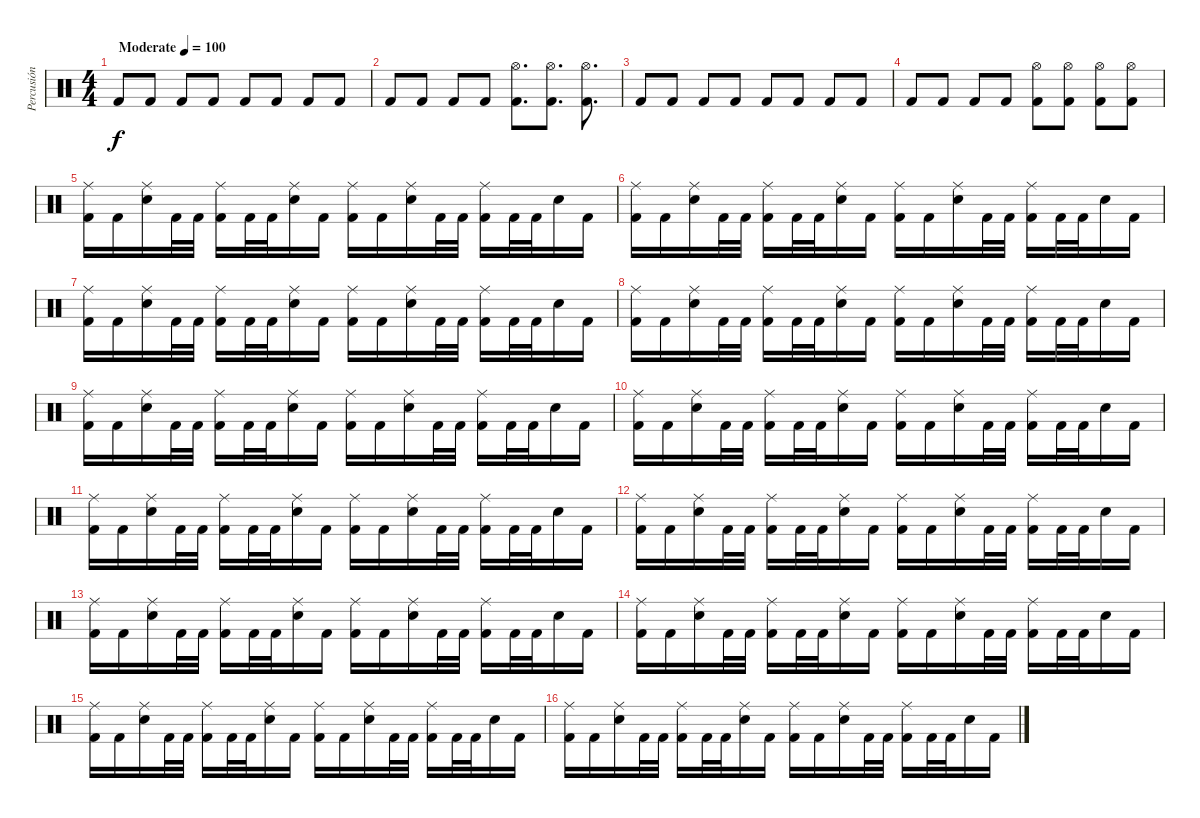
\track ("Percusión" "Percusión") {instrument percussion}
\staff {score}
\articulation defaults
\ts (4 4)
\tempo (100 "Moderate")
\clef neutral
\ks c "Kick (hit) 2".8{dy f} "Kick (hit) 2".8 "Kick (hit) 2".8 "Kick (hit) 2".8 "Kick (hit) 2".8 "Kick (hit) 2".8 "Kick (hit) 2".8 "Kick (hit) 2".8
|
"Kick (hit) 2".8 "Kick (hit) 2".8 "Kick (hit) 2".8 "Kick (hit) 2".8 ("Hi-Hat (open)" "Kick (hit) 2").8{d} ("Hi-Hat (open)" "Kick (hit) 2").8{d} ("Hi-Hat (open)" "Kick (hit) 2").8{d} |
"Kick (hit) 2".8 "Kick (hit) 2".8 "Kick (hit) 2".8 "Kick (hit) 2".8 "Kick (hit) 2".8 "Kick (hit) 2".8 "Kick (hit) 2".8 "Kick (hit) 2".8 |
"Kick (hit) 2".8 "Kick (hit) 2".8 "Kick (hit) 2".8 "Kick (hit) 2".8 ("Hi-Hat (open)" "Kick (hit) 2").8 ("Hi-Hat (open)" "Kick (hit) 2").8 ("Hi-Hat (open)" "Kick (hit) 2").8 ("Hi-Hat (open)" "Kick (hit) 2").8 |
("Ride (middle)" "Kick (hit) 2").16 "Kick (hit) 2".16 ("Ride (middle)" "Snare (hit) 2").16 "Kick (hit) 2".32 "Kick (hit) 2".32 ("Ride (middle)" "Kick (hit) 2").16 "Kick (hit) 2".32 "Kick (hit) 2".32 ("Ride (middle)" "Snare (hit) 2").16 "Kick (hit) 2".16 ("Ride (middle)" "Kick (hit) 2").16 "Kick (hit) 2".16 ("Ride (middle)" "Snare (hit) 2").16 "Kick (hit) 2".32 "Kick (hit) 2".32 ("Ride (middle)" "Kick (hit) 2").16 "Kick (hit) 2".32 "Kick (hit) 2".32 "Snare (hit) 2".16 "Kick (hit) 2".16 |
("Ride (middle)" "Kick (hit) 2").16 "Kick (hit) 2".16 ("Ride (middle)" "Snare (hit) 2").16 "Kick (hit) 2".32 "Kick (hit) 2".32 ("Ride (middle)" "Kick (hit) 2").16 "Kick (hit) 2".32 "Kick (hit) 2".32 ("Ride (middle)" "Snare (hit) 2").16 "Kick (hit) 2".16 ("Ride (middle)" "Kick (hit) 2").16 "Kick (hit) 2".16 ("Ride (middle)" "Snare (hit) 2").16 "Kick (hit) 2".32 "Kick (hit) 2".32 ("Ride (middle)" "Kick (hit) 2").16 "Kick (hit) 2".32 "Kick (hit) 2".32 "Snare (hit) 2".16 "Kick (hit) 2".16 |
("Ride (middle)" "Kick (hit) 2").16 "Kick (hit) 2".16 ("Ride (middle)" "Snare (hit) 2").16 "Kick (hit) 2".32 "Kick (hit) 2".32 ("Ride (middle)" "Kick (hit) 2").16 "Kick (hit) 2".32 "Kick (hit) 2".32 ("Ride (middle)" "Snare (hit) 2").16 "Kick (hit) 2".16 ("Ride (middle)" "Kick (hit) 2").16 "Kick (hit) 2".16 ("Ride (middle)" "Snare (hit) 2").16 "Kick (hit) 2".32 "Kick (hit) 2".32 ("Ride (middle)" "Kick (hit) 2").16 "Kick (hit) 2".32 "Kick (hit) 2".32 "Snare (hit) 2".16 "Kick (hit) 2".16 |
("Ride (middle)" "Kick (hit) 2").16 "Kick (hit) 2".16 ("Ride (middle)" "Snare (hit) 2").16 "Kick (hit) 2".32 "Kick (hit) 2".32 ("Ride (middle)" "Kick (hit) 2").16 "Kick (hit) 2".32 "Kick (hit) 2".32 ("Ride (middle)" "Snare (hit) 2").16 "Kick (hit) 2".16 ("Ride (middle)" "Kick (hit) 2").16 "Kick (hit) 2".16 ("Ride (middle)" "Snare (hit) 2").16 "Kick (hit) 2".32 "Kick (hit) 2".32 ("Ride (middle)" "Kick (hit) 2").16 "Kick (hit) 2".32 "Kick (hit) 2".32 "Snare (hit) 2".16 "Kick (hit) 2".16 |
("Ride (middle)" "Kick (hit) 2").16 "Kick (hit) 2".16 ("Ride (middle)" "Snare (hit) 2").16 "Kick (hit) 2".32 "Kick (hit) 2".32 ("Ride (middle)" "Kick (hit) 2").16 "Kick (hit) 2".32 "Kick (hit) 2".32 ("Ride (middle)" "Snare (hit) 2").16 "Kick (hit) 2".16 ("Ride (middle)" "Kick (hit) 2").16 "Kick (hit) 2".16 ("Ride (middle)" "Snare (hit) 2").16 "Kick (hit) 2".32 "Kick (hit) 2".32 ("Ride (middle)" "Kick (hit) 2").16 "Kick (hit) 2".32 "Kick (hit) 2".32 "Snare (hit) 2".16 "Kick (hit) 2".16 |
("Ride (middle)" "Kick (hit) 2").16 "Kick (hit) 2".16 ("Ride (middle)" "Snare (hit) 2").16 "Kick (hit) 2".32 "Kick (hit) 2".32 ("Ride (middle)" "Kick (hit) 2").16 "Kick (hit) 2".32 "Kick (hit) 2".32 ("Ride (middle)" "Snare (hit) 2").16 "Kick (hit) 2".16 ("Ride (middle)" "Kick (hit) 2").16 "Kick (hit) 2".16 ("Ride (middle)" "Snare (hit) 2").16 "Kick (hit) 2".32 "Kick (hit) 2".32 ("Ride (middle)" "Kick (hit) 2").16 "Kick (hit) 2".32 "Kick (hit) 2".32 "Snare (hit) 2".16 "Kick (hit) 2".16 |
("Ride (middle)" "Kick (hit) 2").16 "Kick (hit) 2".16 ("Ride (middle)" "Snare (hit) 2").16 "Kick (hit) 2".32 "Kick (hit) 2".32 ("Ride (middle)" "Kick (hit) 2").16 "Kick (hit) 2".32 "Kick (hit) 2".32 ("Ride (middle)" "Snare (hit) 2").16 "Kick (hit) 2".16 ("Ride (middle)" "Kick (hit) 2").16 "Kick (hit) 2".16 ("Ride (middle)" "Snare (hit) 2").16 "Kick (hit) 2".32 "Kick (hit) 2".32 ("Ride (middle)" "Kick (hit) 2").16 "Kick (hit) 2".32 "Kick (hit) 2".32 "Snare (hit) 2".16 "Kick (hit) 2".16 |
("Ride (middle)" "Kick (hit) 2").16 "Kick (hit) 2".16 ("Ride (middle)" "Snare (hit) 2").16 "Kick (hit) 2".32 "Kick (hit) 2".32 ("Ride (middle)" "Kick (hit) 2").16 "Kick (hit) 2".32 "Kick (hit) 2".32 ("Ride (middle)" "Snare (hit) 2").16 "Kick (hit) 2".16 ("Ride (middle)" "Kick (hit) 2").16 "Kick (hit) 2".16 ("Ride (middle)" "Snare (hit) 2").16 "Kick (hit) 2".32 "Kick (hit) 2".32 ("Ride (middle)" "Kick (hit) 2").16 "Kick (hit) 2".32 "Kick (hit) 2".32 "Snare (hit) 2".16 "Kick (hit) 2".16 |
("Ride (middle)" "Kick (hit) 2").16 "Kick (hit) 2".16 ("Ride (middle)" "Snare (hit) 2").16 "Kick (hit) 2".32 "Kick (hit) 2".32 ("Ride (middle)" "Kick (hit) 2").16 "Kick (hit) 2".32 "Kick (hit) 2".32 ("Ride (middle)" "Snare (hit) 2").16 "Kick (hit) 2".16 ("Ride (middle)" "Kick (hit) 2").16 "Kick (hit) 2".16 ("Ride (middle)" "Snare (hit) 2").16 "Kick (hit) 2".32 "Kick (hit) 2".32 ("Ride (middle)" "Kick (hit) 2").16 "Kick (hit) 2".32 "Kick (hit) 2".32 "Snare (hit) 2".16 "Kick (hit) 2".16 |
("Ride (middle)" "Kick (hit) 2").16 "Kick (hit) 2".16 ("Ride (middle)" "Snare (hit) 2").16 "Kick (hit) 2".32 "Kick (hit) 2".32 ("Ride (middle)" "Kick (hit) 2").16 "Kick (hit) 2".32 "Kick (hit) 2".32 ("Ride (middle)" "Snare (hit) 2").16 "Kick (hit) 2".16 ("Ride (middle)" "Kick (hit) 2").16 "Kick (hit) 2".16 ("Ride (middle)" "Snare (hit) 2").16 "Kick (hit) 2".32 "Kick (hit) 2".32 ("Ride (middle)" "Kick (hit) 2").16 "Kick (hit) 2".32 "Kick (hit) 2".32 "Snare (hit) 2".16 "Kick (hit) 2".16 |
("Ride (middle)" "Kick (hit) 2").16 "Kick (hit) 2".16 ("Ride (middle)" "Snare (hit) 2").16 "Kick (hit) 2".32 "Kick (hit) 2".32 ("Ride (middle)" "Kick (hit) 2").16 "Kick (hit) 2".32 "Kick (hit) 2".32 ("Ride (middle)" "Snare (hit) 2").16 "Kick (hit) 2".16 ("Ride (middle)" "Kick (hit) 2").16 "Kick (hit) 2".16 ("Ride (middle)" "Snare (hit) 2").16 "Kick (hit) 2".32 "Kick (hit) 2".32 ("Ride (middle)" "Kick (hit) 2").16 "Kick (hit) 2".32 "Kick (hit) 2".32 "Snare (hit) 2".16 "Kick (hit) 2".16 |
("Ride (middle)" "Kick (hit) 2").16 "Kick (hit) 2".16 ("Ride (middle)" "Snare (hit) 2").16 "Kick (hit) 2".32 "Kick (hit) 2".32 ("Ride (middle)" "Kick (hit) 2").16 "Kick (hit) 2".32 "Kick (hit) 2".32 ("Ride (middle)" "Snare (hit) 2").16 "Kick (hit) 2".16 ("Ride (middle)" "Kick (hit) 2").16 "Kick (hit) 2".16 ("Ride (middle)" "Snare (hit) 2").16 "Kick (hit) 2".32 "Kick (hit) 2".32 ("Ride (middle)" "Kick (hit) 2").16 "Kick (hit) 2".32 "Kick (hit) 2".32 "Snare (hit) 2".16 "Kick (hit) 2".16
